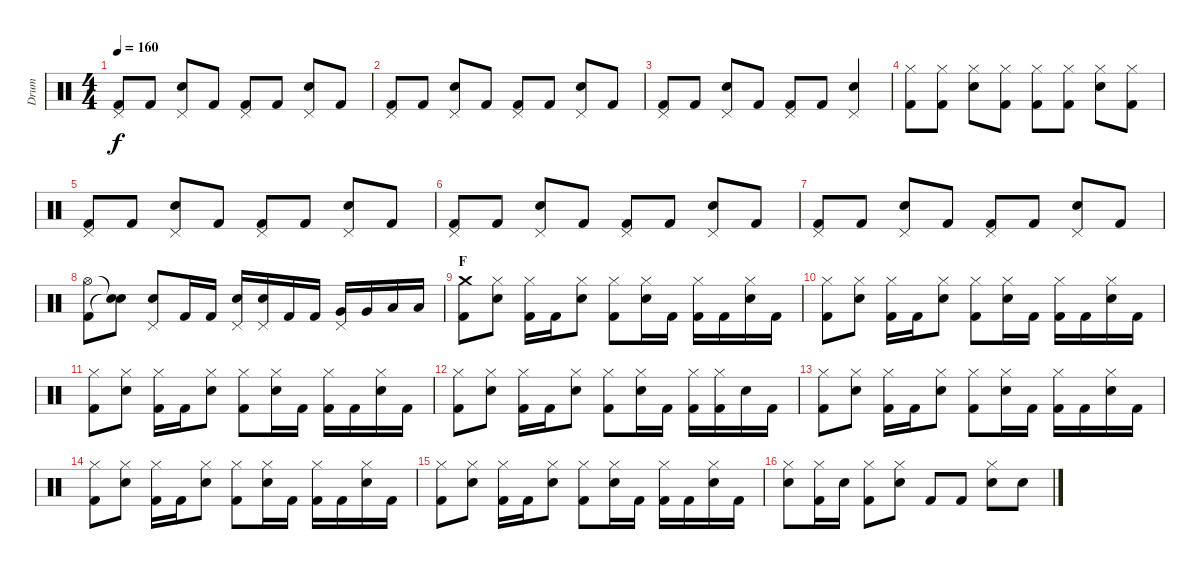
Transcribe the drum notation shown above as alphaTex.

\track ("Drum" "Drum") {instrument percussion}
\staff {score}
\articulation defaults
\ts (4 4)
\tempo 160
\clef neutral
\ks c
("Pedal Hi-Hat (hit)" "Kick (hit) 2").8{dy f} "Kick (hit) 2".8 ("Pedal Hi-Hat (hit)" "Snare (hit) 2").8 "Kick (hit) 2".8 ("Pedal Hi-Hat (hit)" "Kick (hit) 2").8 "Kick (hit) 2".8 ("Pedal Hi-Hat (hit)" "Snare (hit) 2").8 "Kick (hit) 2".8 |
("Pedal Hi-Hat (hit)" "Kick (hit) 2").8 "Kick (hit) 2".8 ("Pedal Hi-Hat (hit)" "Snare (hit) 2").8 "Kick (hit) 2".8 ("Pedal Hi-Hat (hit)" "Kick (hit) 2").8 "Kick (hit) 2".8 ("Pedal Hi-Hat (hit)" "Snare (hit) 2").8 "Kick (hit) 2".8 |
("Pedal Hi-Hat (hit)" "Kick (hit) 2").8 "Kick (hit) 2".8 ("Pedal Hi-Hat (hit)" "Snare (hit) 2").8 "Kick (hit) 2".8 ("Pedal Hi-Hat (hit)" "Kick (hit) 2").8 "Kick (hit) 2".8 ("Pedal Hi-Hat (hit)" "Snare (hit) 2").4 |
("Hi-Hat (closed)" "Kick (hit) 2").8 ("Hi-Hat (closed)" "Kick (hit) 2").8 ("Hi-Hat (closed)" "Snare (hit) 2").8 ("Hi-Hat (closed)" "Kick (hit) 2").8 ("Hi-Hat (closed)" "Kick (hit) 2").8 ("Hi-Hat (closed)" "Kick (hit) 2").8 ("Hi-Hat (closed)" "Snare (hit) 2").8 ("Hi-Hat (closed)" "Kick (hit) 2").8 |
("Pedal Hi-Hat (hit)" "Kick (hit) 2").8 "Kick (hit) 2".8 ("Pedal Hi-Hat (hit)" "Snare (hit) 2").8 "Kick (hit) 2".8 ("Pedal Hi-Hat (hit)" "Kick (hit) 2").8 "Kick (hit) 2".8 ("Pedal Hi-Hat (hit)" "Snare (hit) 2").8 "Kick (hit) 2".8 |
("Pedal Hi-Hat (hit)" "Kick (hit) 2").8 "Kick (hit) 2".8 ("Pedal Hi-Hat (hit)" "Snare (hit) 2").8 "Kick (hit) 2".8 ("Pedal Hi-Hat (hit)" "Kick (hit) 2").8 "Kick (hit) 2".8 ("Pedal Hi-Hat (hit)" "Snare (hit) 2").8 "Kick (hit) 2".8 |
("Pedal Hi-Hat (hit)" "Kick (hit) 2").8 "Kick (hit) 2".8 ("Pedal Hi-Hat (hit)" "Snare (hit) 2").8 "Kick (hit) 2".8 ("Pedal Hi-Hat (hit)" "Kick (hit) 2").8 "Kick (hit) 2".8 ("Pedal Hi-Hat (hit)" "Snare (hit) 2").8 "Kick (hit) 2".8 |
("Hi-Hat (open)" "Kick (hit) 2").8 ("Snare (hit)"{t} "Snare (hit)"{t}).8 ("Pedal Hi-Hat (hit)" "Snare (hit) 2").8 "Kick (hit) 2".16 "Kick (hit) 2".16 ("Pedal Hi-Hat (hit)" "Snare (hit) 2").16 ("Pedal Hi-Hat (hit)" "Snare (hit) 2").16 "Kick (hit) 2".16 "Kick (hit) 2".16 ("Pedal Hi-Hat (hit)" "Very Low Tom (hit)").16 "Very Low Tom (hit)".16 "Low Floor Tom (hit)".16 "Low Floor Tom (hit)".16 |
\section ("" "F")
("Crash medium (hit)" "Kick (hit) 2").8 ("Hi-Hat (closed)" "Snare (hit) 2").8 ("Hi-Hat (closed)" "Kick (hit) 2").16 "Kick (hit) 2".16 ("Hi-Hat (closed)" "Snare (hit) 2").8 ("Hi-Hat (closed)" "Kick (hit) 2").8 ("Hi-Hat (closed)" "Snare (hit) 2").16 "Kick (hit) 2".16 ("Hi-Hat (closed)" "Kick (hit) 2").16 "Kick (hit) 2".16 ("Hi-Hat (closed)" "Snare (hit) 2").16 "Kick (hit) 2".16 |
("Hi-Hat (closed)" "Kick (hit) 2").8 ("Hi-Hat (closed)" "Snare (hit) 2").8 ("Hi-Hat (closed)" "Kick (hit) 2").16 "Kick (hit) 2".16 ("Hi-Hat (closed)" "Snare (hit) 2").8 ("Hi-Hat (closed)" "Kick (hit) 2").8 ("Hi-Hat (closed)" "Snare (hit) 2").16 "Kick (hit) 2".16 ("Hi-Hat (closed)" "Kick (hit) 2").16 "Kick (hit) 2".16 ("Hi-Hat (closed)" "Snare (hit) 2").16 "Kick (hit) 2".16 |
("Hi-Hat (closed)" "Kick (hit) 2").8 ("Hi-Hat (closed)" "Snare (hit) 2").8 ("Hi-Hat (closed)" "Kick (hit) 2").16 "Kick (hit) 2".16 ("Hi-Hat (closed)" "Snare (hit) 2").8 ("Hi-Hat (closed)" "Kick (hit) 2").8 ("Hi-Hat (closed)" "Snare (hit) 2").16 "Kick (hit) 2".16 ("Hi-Hat (closed)" "Kick (hit) 2").16 "Kick (hit) 2".16 ("Hi-Hat (closed)" "Snare (hit) 2").16 "Kick (hit) 2".16 |
("Hi-Hat (closed)" "Kick (hit) 2").8 ("Hi-Hat (closed)" "Snare (hit) 2").8 ("Hi-Hat (closed)" "Kick (hit) 2").16 "Kick (hit) 2".16 ("Hi-Hat (closed)" "Snare (hit) 2").8 ("Hi-Hat (closed)" "Kick (hit) 2").8 ("Hi-Hat (closed)" "Snare (hit) 2").16 "Kick (hit) 2".16 ("Hi-Hat (closed)" "Kick (hit) 2").16 ("Hi-Hat (closed)" "Kick (hit) 2").16 "Snare (hit) 2".16 "Kick (hit) 2".16 |
("Hi-Hat (closed)" "Kick (hit) 2").8 ("Hi-Hat (closed)" "Snare (hit) 2").8 ("Hi-Hat (closed)" "Kick (hit) 2").16 "Kick (hit) 2".16 ("Hi-Hat (closed)" "Snare (hit) 2").8 ("Hi-Hat (closed)" "Kick (hit) 2").8 ("Hi-Hat (closed)" "Snare (hit) 2").16 "Kick (hit) 2".16 ("Hi-Hat (closed)" "Kick (hit) 2").16 "Kick (hit) 2".16 ("Hi-Hat (closed)" "Snare (hit) 2").16 "Kick (hit) 2".16 |
("Hi-Hat (closed)" "Kick (hit) 2").8 ("Hi-Hat (closed)" "Snare (hit) 2").8 ("Hi-Hat (closed)" "Kick (hit) 2").16 "Kick (hit) 2".16 ("Hi-Hat (closed)" "Snare (hit) 2").8 ("Hi-Hat (closed)" "Kick (hit) 2").8 ("Hi-Hat (closed)" "Snare (hit) 2").16 "Kick (hit) 2".16 ("Hi-Hat (closed)" "Kick (hit) 2").16 "Kick (hit) 2".16 ("Hi-Hat (closed)" "Snare (hit) 2").16 "Kick (hit) 2".16 |
("Hi-Hat (closed)" "Kick (hit) 2").8 ("Hi-Hat (closed)" "Snare (hit) 2").8 ("Hi-Hat (closed)" "Kick (hit) 2").16 "Kick (hit) 2".16 ("Hi-Hat (closed)" "Snare (hit) 2").8 ("Hi-Hat (closed)" "Kick (hit) 2").8 ("Hi-Hat (closed)" "Snare (hit) 2").16 "Kick (hit) 2".16 ("Hi-Hat (closed)" "Kick (hit) 2").16 "Kick (hit) 2".16 ("Hi-Hat (closed)" "Snare (hit) 2").16 "Kick (hit) 2".16 |
("Snare (hit) 2" "Hi-Hat (closed)").8 ("Hi-Hat (closed)" "Kick (hit) 2").16 "Snare (hit) 2".16 ("Hi-Hat (closed)" "Kick (hit) 2").8 ("Snare (hit) 2" "Hi-Hat (closed)").8 "Kick (hit) 2".8 "Kick (hit) 2".8 ("Hi-Hat (closed)" "Snare (hit) 2").8 "Snare (hit) 2".8
